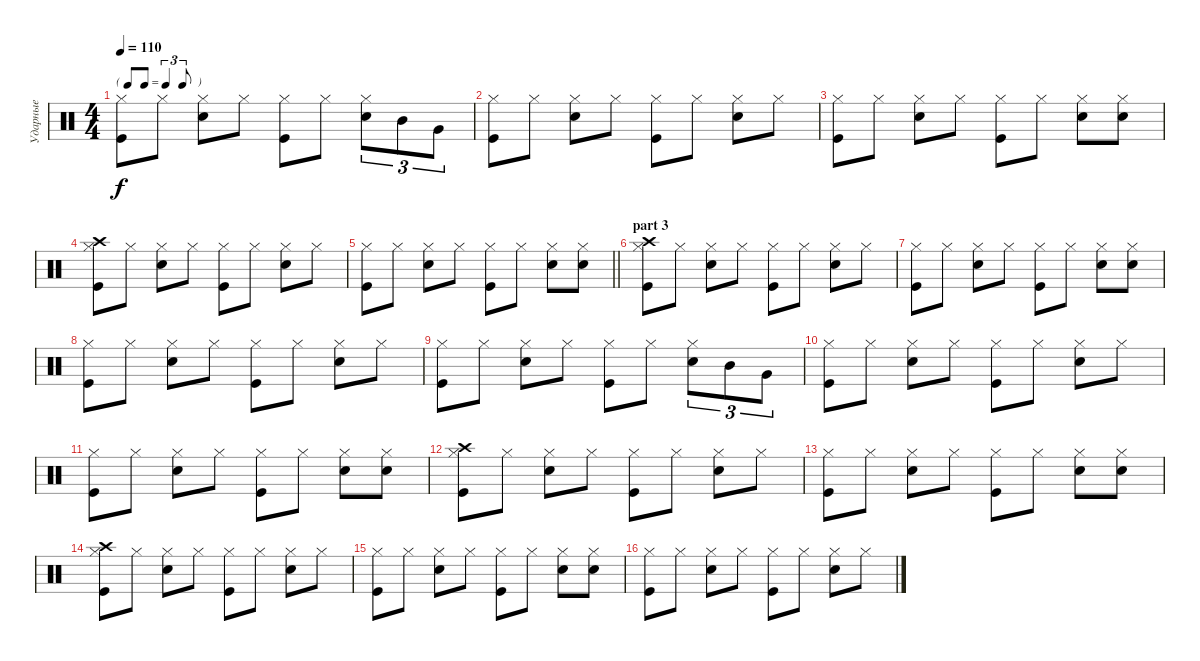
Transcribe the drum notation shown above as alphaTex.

\track ("Ударные" "Ударные") {instrument percussion}
\staff {score}
\articulation defaults
\ts (4 4)
\tf triplet8th
\tempo 110
\clef neutral
\ks c
("Hi-Hat (closed)" "Kick (hit)").8{dy f} "Hi-Hat (closed)".8 ("Hi-Hat (closed)" "Snare (hit) 2").8 "Hi-Hat (closed)".8 ("Hi-Hat (closed)" "Kick (hit)").8 "Hi-Hat (closed)".8 ("Hi-Hat (closed)" "Snare (hit) 2").8{tu (3 2)} "Mid Tom (hit)".8{tu (3 2)} "Very Low Tom (hit)".8{tu (3 2)} |
("Hi-Hat (closed)" "Kick (hit)").8 "Hi-Hat (closed)".8 ("Hi-Hat (closed)" "Snare (hit) 2").8 "Hi-Hat (closed)".8 ("Hi-Hat (closed)" "Kick (hit)").8 "Hi-Hat (closed)".8 ("Hi-Hat (closed)" "Snare (hit) 2").8 "Hi-Hat (closed)".8 |
("Hi-Hat (closed)" "Kick (hit)").8 "Hi-Hat (closed)".8 ("Hi-Hat (closed)" "Snare (hit) 2").8 "Hi-Hat (closed)".8 ("Hi-Hat (closed)" "Kick (hit)").8 "Hi-Hat (closed)".8 ("Hi-Hat (closed)" "Snare (hit) 2").8 ("Hi-Hat (closed)" "Snare (hit) 2").8 |
("Hi-Hat (closed)" "Kick (hit)" "Crash high (hit)").8 "Hi-Hat (closed)".8 ("Hi-Hat (closed)" "Snare (hit) 2").8 "Hi-Hat (closed)".8 ("Hi-Hat (closed)" "Kick (hit)").8 "Hi-Hat (closed)".8 ("Hi-Hat (closed)" "Snare (hit) 2").8 "Hi-Hat (closed)".8 |
\barLineRight lightlight
("Hi-Hat (closed)" "Kick (hit)").8 "Hi-Hat (closed)".8 ("Hi-Hat (closed)" "Snare (hit) 2").8 "Hi-Hat (closed)".8 ("Hi-Hat (closed)" "Kick (hit)").8 "Hi-Hat (closed)".8 ("Hi-Hat (closed)" "Snare (hit) 2").8 ("Hi-Hat (closed)" "Snare (hit) 2").8 |
\section ("" "part 3")
("Hi-Hat (closed)" "Kick (hit)" "Crash high (hit)").8 "Hi-Hat (closed)".8 ("Hi-Hat (closed)" "Snare (hit) 2").8 "Hi-Hat (closed)".8 ("Hi-Hat (closed)" "Kick (hit)").8 "Hi-Hat (closed)".8 ("Hi-Hat (closed)" "Snare (hit) 2").8 "Hi-Hat (closed)".8 |
("Hi-Hat (closed)" "Kick (hit)").8 "Hi-Hat (closed)".8 ("Hi-Hat (closed)" "Snare (hit) 2").8 "Hi-Hat (closed)".8 ("Hi-Hat (closed)" "Kick (hit)").8 "Hi-Hat (closed)".8 ("Hi-Hat (closed)" "Snare (hit) 2").8 ("Hi-Hat (closed)" "Snare (hit) 2").8 |
("Hi-Hat (closed)" "Kick (hit)").8 "Hi-Hat (closed)".8 ("Hi-Hat (closed)" "Snare (hit) 2").8 "Hi-Hat (closed)".8 ("Hi-Hat (closed)" "Kick (hit)").8 "Hi-Hat (closed)".8 ("Hi-Hat (closed)" "Snare (hit) 2").8 "Hi-Hat (closed)".8 |
("Hi-Hat (closed)" "Kick (hit)").8 "Hi-Hat (closed)".8 ("Hi-Hat (closed)" "Snare (hit) 2").8 "Hi-Hat (closed)".8 ("Hi-Hat (closed)" "Kick (hit)").8 "Hi-Hat (closed)".8 ("Hi-Hat (closed)" "Snare (hit) 2").8{tu (3 2)} "Mid Tom (hit)".8{tu (3 2)} "Very Low Tom (hit)".8{tu (3 2)} |
("Hi-Hat (closed)" "Kick (hit)").8 "Hi-Hat (closed)".8 ("Hi-Hat (closed)" "Snare (hit) 2").8 "Hi-Hat (closed)".8 ("Hi-Hat (closed)" "Kick (hit)").8 "Hi-Hat (closed)".8 ("Hi-Hat (closed)" "Snare (hit) 2").8 "Hi-Hat (closed)".8 |
("Hi-Hat (closed)" "Kick (hit)").8 "Hi-Hat (closed)".8 ("Hi-Hat (closed)" "Snare (hit) 2").8 "Hi-Hat (closed)".8 ("Hi-Hat (closed)" "Kick (hit)").8 "Hi-Hat (closed)".8 ("Hi-Hat (closed)" "Snare (hit) 2").8 ("Hi-Hat (closed)" "Snare (hit) 2").8 |
("Hi-Hat (closed)" "Kick (hit)" "Crash high (hit)").8 "Hi-Hat (closed)".8 ("Hi-Hat (closed)" "Snare (hit) 2").8 "Hi-Hat (closed)".8 ("Hi-Hat (closed)" "Kick (hit)").8 "Hi-Hat (closed)".8 ("Hi-Hat (closed)" "Snare (hit) 2").8 "Hi-Hat (closed)".8 |
("Hi-Hat (closed)" "Kick (hit)").8 "Hi-Hat (closed)".8 ("Hi-Hat (closed)" "Snare (hit) 2").8 "Hi-Hat (closed)".8 ("Hi-Hat (closed)" "Kick (hit)").8 "Hi-Hat (closed)".8 ("Hi-Hat (closed)" "Snare (hit) 2").8 ("Hi-Hat (closed)" "Snare (hit) 2").8 |
("Hi-Hat (closed)" "Kick (hit)" "Crash high (hit)").8 "Hi-Hat (closed)".8 ("Hi-Hat (closed)" "Snare (hit) 2").8 "Hi-Hat (closed)".8 ("Hi-Hat (closed)" "Kick (hit)").8 "Hi-Hat (closed)".8 ("Hi-Hat (closed)" "Snare (hit) 2").8 "Hi-Hat (closed)".8 |
("Hi-Hat (closed)" "Kick (hit)").8 "Hi-Hat (closed)".8 ("Hi-Hat (closed)" "Snare (hit) 2").8 "Hi-Hat (closed)".8 ("Hi-Hat (closed)" "Kick (hit)").8 "Hi-Hat (closed)".8 ("Hi-Hat (closed)" "Snare (hit) 2").8 ("Hi-Hat (closed)" "Snare (hit) 2").8 |
("Hi-Hat (closed)" "Kick (hit)").8 "Hi-Hat (closed)".8 ("Hi-Hat (closed)" "Snare (hit) 2").8 "Hi-Hat (closed)".8 ("Hi-Hat (closed)" "Kick (hit)").8 "Hi-Hat (closed)".8 ("Hi-Hat (closed)" "Snare (hit) 2").8 "Hi-Hat (closed)".8
